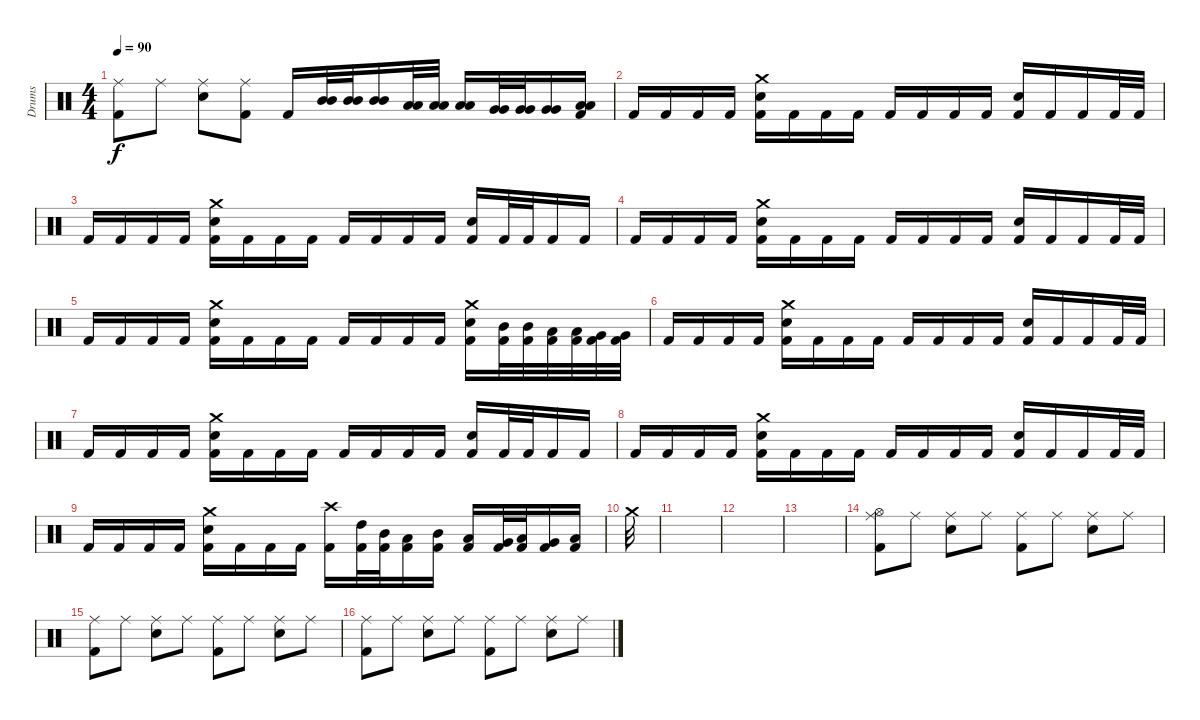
\track ("Drums" "Drums") {instrument percussion}
\staff {score}
\articulation defaults
\ts (4 4)
\tempo 90
\clef neutral
\ks c
("Ride (middle)" "Kick (hit) 2").8{dy f} "Ride (middle)".8 ("Ride (middle)" "Snare (hit) 2").8 ("Ride (middle)" "Kick (hit) 2").8 "Kick (hit) 2".16 ("Mid Tom (hit)" "Mid Tom (hit)").32 ("Mid Tom (hit)" "Mid Tom (hit)").32 ("Mid Tom (hit)" "Mid Tom (hit)").16 ("Low Tom (hit)" "Low Tom (hit)").32 ("Low Tom (hit)" "Low Tom (hit)").32 ("Low Tom (hit)" "Low Tom (hit)").16 ("Very Low Tom (hit)" "Very Low Tom (hit)").32 ("Very Low Tom (hit)" "Very Low Tom (hit)").32 ("Very Low Tom (hit)" "Very Low Tom (hit)").16 ("Low Floor Tom (hit)" "Low Floor Tom (hit)" "Kick (hit) 2").16 |
"Kick (hit) 2".16 "Kick (hit) 2".16 "Kick (hit) 2".16 "Kick (hit) 2".16 ("Crash medium (hit)" "Snare (hit) 2" "Kick (hit) 2").16 "Kick (hit) 2".16 "Kick (hit) 2".16 "Kick (hit) 2".16 "Kick (hit) 2".16 "Kick (hit) 2".16 "Kick (hit) 2".16 "Kick (hit) 2".16 ("Snare (hit) 2" "Kick (hit) 2").16 "Kick (hit) 2".16 "Kick (hit) 2".16 "Kick (hit) 2".32 "Kick (hit) 2".32 |
"Kick (hit) 2".16 "Kick (hit) 2".16 "Kick (hit) 2".16 "Kick (hit) 2".16 ("Crash medium (hit)" "Snare (hit) 2" "Kick (hit) 2").16 "Kick (hit) 2".16 "Kick (hit) 2".16 "Kick (hit) 2".16 "Kick (hit) 2".16 "Kick (hit) 2".16 "Kick (hit) 2".16 "Kick (hit) 2".16 ("Snare (hit) 2" "Kick (hit) 2").16 "Kick (hit) 2".32 "Kick (hit) 2".32 "Kick (hit) 2".16 "Kick (hit) 2".16 |
"Kick (hit) 2".16 "Kick (hit) 2".16 "Kick (hit) 2".16 "Kick (hit) 2".16 ("Crash medium (hit)" "Snare (hit) 2" "Kick (hit) 2").16 "Kick (hit) 2".16 "Kick (hit) 2".16 "Kick (hit) 2".16 "Kick (hit) 2".16 "Kick (hit) 2".16 "Kick (hit) 2".16 "Kick (hit) 2".16 ("Snare (hit) 2" "Kick (hit) 2").16 "Kick (hit) 2".16 "Kick (hit) 2".16 "Kick (hit) 2".32 "Kick (hit) 2".32 |
"Kick (hit) 2".16 "Kick (hit) 2".16 "Kick (hit) 2".16 "Kick (hit) 2".16 ("Crash medium (hit)" "Snare (hit) 2" "Kick (hit) 2").16 "Kick (hit) 2".16 "Kick (hit) 2".16 "Kick (hit) 2".16 "Kick (hit) 2".16 "Kick (hit) 2".16 "Kick (hit) 2".16 "Kick (hit) 2".16 ("Crash medium (hit)" "Snare (hit) 2" "Kick (hit) 2").16 ("Mid Tom (hit)" "Kick (hit) 2").32 ("Mid Tom (hit)" "Kick (hit) 2").32 ("Low Tom (hit)" "Kick (hit) 2").32 ("Low Tom (hit)" "Kick (hit) 2").32 ("Very Low Tom (hit)" "Kick (hit) 2").32 ("Very Low Tom (hit)" "Kick (hit) 2").32 |
"Kick (hit) 2".16 "Kick (hit) 2".16 "Kick (hit) 2".16 "Kick (hit) 2".16 ("Crash medium (hit)" "Snare (hit) 2" "Kick (hit) 2").16 "Kick (hit) 2".16 "Kick (hit) 2".16 "Kick (hit) 2".16 "Kick (hit) 2".16 "Kick (hit) 2".16 "Kick (hit) 2".16 "Kick (hit) 2".16 ("Snare (hit) 2" "Kick (hit) 2").16 "Kick (hit) 2".16 "Kick (hit) 2".16 "Kick (hit) 2".32 "Kick (hit) 2".32 |
"Kick (hit) 2".16 "Kick (hit) 2".16 "Kick (hit) 2".16 "Kick (hit) 2".16 ("Crash medium (hit)" "Snare (hit) 2" "Kick (hit) 2").16 "Kick (hit) 2".16 "Kick (hit) 2".16 "Kick (hit) 2".16 "Kick (hit) 2".16 "Kick (hit) 2".16 "Kick (hit) 2".16 "Kick (hit) 2".16 ("Snare (hit) 2" "Kick (hit) 2").16 "Kick (hit) 2".32 "Kick (hit) 2".32 "Kick (hit) 2".16 "Kick (hit) 2".16 |
"Kick (hit) 2".16 "Kick (hit) 2".16 "Kick (hit) 2".16 "Kick (hit) 2".16 ("Crash medium (hit)" "Snare (hit) 2" "Kick (hit) 2").16 "Kick (hit) 2".16 "Kick (hit) 2".16 "Kick (hit) 2".16 "Kick (hit) 2".16 "Kick (hit) 2".16 "Kick (hit) 2".16 "Kick (hit) 2".16 ("Snare (hit) 2" "Kick (hit) 2").16 "Kick (hit) 2".16 "Kick (hit) 2".16 "Kick (hit) 2".32 "Kick (hit) 2".32 |
"Kick (hit) 2".16 "Kick (hit) 2".16 "Kick (hit) 2".16 "Kick (hit) 2".16 ("Crash medium (hit)" "Snare (hit) 2" "Kick (hit) 2").16 "Kick (hit) 2".16 "Kick (hit) 2".16 "Kick (hit) 2".16 ("Crash high (hit)" "Kick (hit) 2").16 ("High Tom (hit)" "Kick (hit) 2").32 ("Mid Tom (hit)" "Kick (hit) 2").32 ("Low Tom (hit)" "Kick (hit) 2").16 ("Mid Tom (hit)" "Kick (hit) 2").16 ("Low Tom (hit)" "Kick (hit) 2").16 ("Very Low Tom (hit)" "Kick (hit) 2").32 ("Low Tom (hit)" "Kick (hit) 2").32 ("Very Low Tom (hit)" "Kick (hit) 2").16 ("Low Floor Tom (hit)" "Kick (hit) 2").16 |
"Crash medium (hit)".32 |
|
|
|
("Hi-Hat (open)" "Ride (middle)" "Kick (hit) 2").8 "Ride (middle)".8 ("Ride (middle)" "Snare (hit) 2").8 "Ride (middle)".8 ("Ride (middle)" "Kick (hit) 2").8 "Ride (middle)".8 ("Ride (middle)" "Snare (hit) 2").8 "Ride (middle)".8 |
("Ride (middle)" "Kick (hit) 2").8 "Ride (middle)".8 ("Ride (middle)" "Snare (hit) 2").8 "Ride (middle)".8 ("Ride (middle)" "Kick (hit) 2").8 "Ride (middle)".8 ("Ride (middle)" "Snare (hit) 2").8 "Ride (middle)".8 |
("Ride (middle)" "Kick (hit) 2").8 "Ride (middle)".8 ("Ride (middle)" "Snare (hit) 2").8 "Ride (middle)".8 ("Ride (middle)" "Kick (hit) 2").8 "Ride (middle)".8 ("Ride (middle)" "Snare (hit) 2").8 "Ride (middle)".8
